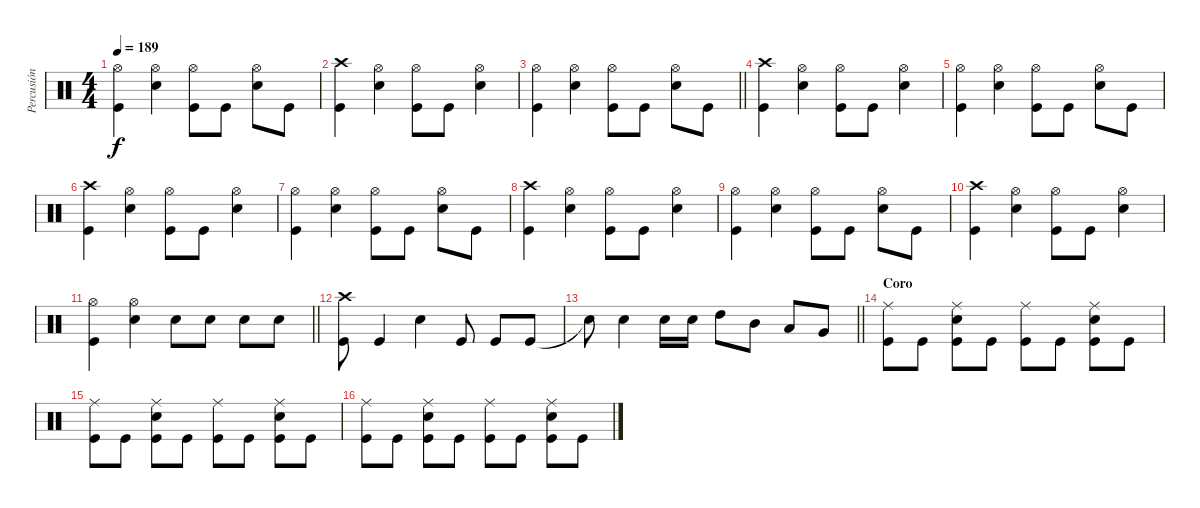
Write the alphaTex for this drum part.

\track ("Percusión" "Percusión") {instrument percussion}
\staff {score}
\articulation defaults
\ts (4 4)
\tempo 189
\clef neutral
\ks c
("Hi-Hat (open)" "Kick (hit)").4{dy f} ("Hi-Hat (open)" "Electric Snare (hit)").4 ("Hi-Hat (open)" "Kick (hit)").8 "Kick (hit)".8 ("Hi-Hat (open)" "Electric Snare (hit)").8 "Kick (hit)".8 |
("Crash high (hit)" "Kick (hit)").4 ("Hi-Hat (open)" "Electric Snare (hit)").4 ("Hi-Hat (open)" "Kick (hit)").8 "Kick (hit)".8 ("Hi-Hat (open)" "Electric Snare (hit)").4 |
\barLineRight lightlight
("Hi-Hat (open)" "Kick (hit)").4 ("Hi-Hat (open)" "Electric Snare (hit)").4 ("Hi-Hat (open)" "Kick (hit)").8 "Kick (hit)".8 ("Hi-Hat (open)" "Electric Snare (hit)").8 "Kick (hit)".8 |
("Crash high (hit)" "Kick (hit)").4 ("Hi-Hat (open)" "Electric Snare (hit)").4 ("Hi-Hat (open)" "Kick (hit)").8 "Kick (hit)".8 ("Hi-Hat (open)" "Electric Snare (hit)").4 |
("Hi-Hat (open)" "Kick (hit)").4 ("Hi-Hat (open)" "Electric Snare (hit)").4 ("Hi-Hat (open)" "Kick (hit)").8 "Kick (hit)".8 ("Hi-Hat (open)" "Electric Snare (hit)").8 "Kick (hit)".8 |
("Crash high (hit)" "Kick (hit)").4 ("Hi-Hat (open)" "Electric Snare (hit)").4 ("Hi-Hat (open)" "Kick (hit)").8 "Kick (hit)".8 ("Hi-Hat (open)" "Electric Snare (hit)").4 |
("Hi-Hat (open)" "Kick (hit)").4 ("Hi-Hat (open)" "Electric Snare (hit)").4 ("Hi-Hat (open)" "Kick (hit)").8 "Kick (hit)".8 ("Hi-Hat (open)" "Electric Snare (hit)").8 "Kick (hit)".8 |
("Crash high (hit)" "Kick (hit)").4 ("Hi-Hat (open)" "Electric Snare (hit)").4 ("Hi-Hat (open)" "Kick (hit)").8 "Kick (hit)".8 ("Hi-Hat (open)" "Electric Snare (hit)").4 |
("Hi-Hat (open)" "Kick (hit)").4 ("Hi-Hat (open)" "Electric Snare (hit)").4 ("Hi-Hat (open)" "Kick (hit)").8 "Kick (hit)".8 ("Hi-Hat (open)" "Electric Snare (hit)").8 "Kick (hit)".8 |
("Crash high (hit)" "Kick (hit)").4 ("Hi-Hat (open)" "Electric Snare (hit)").4 ("Hi-Hat (open)" "Kick (hit)").8 "Kick (hit)".8 ("Hi-Hat (open)" "Electric Snare (hit)").4 |
\barLineRight lightlight
("Hi-Hat (open)" "Kick (hit)").4 ("Hi-Hat (open)" "Electric Snare (hit)").4 "Electric Snare (hit)".8 "Electric Snare (hit)".8 "Electric Snare (hit)".8 "Electric Snare (hit)".8 |
("Crash high (hit)" "Kick (hit)").8 "Kick (hit)".4 "Electric Snare (hit)".4 "Kick (hit)".8 "Kick (hit)".8 "Kick (hit)".8 |
\barLineRight lightlight "Snare (hit)"{t}.8 "Electric Snare (hit)".4 "Electric Snare (hit)".16 "Electric Snare (hit)".16 "High Tom (hit)".8 "Mid Tom (hit)".8 "Low Tom (hit)".8 "Very Low Tom (hit)".8
|
\section ("" "Coro")
("Ride (middle)" "Kick (hit)").8 "Kick (hit)".8 ("Ride (middle)" "Electric Snare (hit)" "Kick (hit)").8 "Kick (hit)".8 ("Ride (middle)" "Kick (hit)").8 "Kick (hit)".8 ("Ride (middle)" "Electric Snare (hit)" "Kick (hit)").8 "Kick (hit)".8 |
("Ride (middle)" "Kick (hit)").8 "Kick (hit)".8 ("Ride (middle)" "Electric Snare (hit)" "Kick (hit)").8 "Kick (hit)".8 ("Ride (middle)" "Kick (hit)").8 "Kick (hit)".8 ("Ride (middle)" "Electric Snare (hit)" "Kick (hit)").8 "Kick (hit)".8 |
("Ride (middle)" "Kick (hit)").8 "Kick (hit)".8 ("Ride (middle)" "Electric Snare (hit)" "Kick (hit)").8 "Kick (hit)".8 ("Ride (middle)" "Kick (hit)").8 "Kick (hit)".8 ("Ride (middle)" "Electric Snare (hit)" "Kick (hit)").8 "Kick (hit)".8
